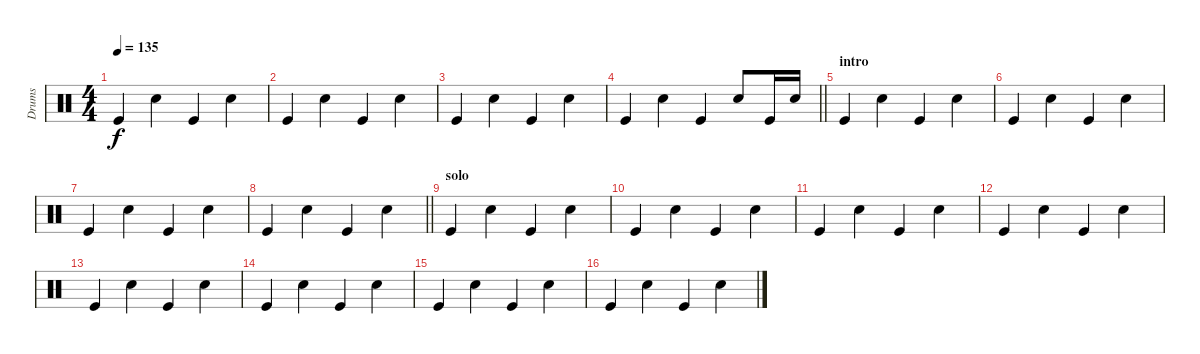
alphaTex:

\track ("Drums" "Drums") {instrument percussion}
\staff {score}
\articulation defaults
\ts (4 4)
\tempo 135
\clef neutral
\ks c "Kick (hit)".4{dy f} "Electric Snare (hit)".4 "Kick (hit)".4 "Electric Snare (hit)".4
|
"Kick (hit)".4 "Electric Snare (hit)".4 "Kick (hit)".4 "Electric Snare (hit)".4 |
"Kick (hit)".4 "Electric Snare (hit)".4 "Kick (hit)".4 "Electric Snare (hit)".4 |
\barLineRight lightlight "Kick (hit)".4 "Electric Snare (hit)".4 "Kick (hit)".4 "Electric Snare (hit)".8 "Kick (hit)".16 "Electric Snare (hit)".16
|
\section ("" "intro")
"Kick (hit)".4 "Electric Snare (hit)".4 "Kick (hit)".4 "Electric Snare (hit)".4 |
"Kick (hit)".4 "Electric Snare (hit)".4 "Kick (hit)".4 "Electric Snare (hit)".4 |
"Kick (hit)".4 "Electric Snare (hit)".4 "Kick (hit)".4 "Electric Snare (hit)".4 |
\barLineRight lightlight "Kick (hit)".4 "Electric Snare (hit)".4 "Kick (hit)".4 "Electric Snare (hit)".4
|
\section ("" "solo")
"Kick (hit)".4 "Electric Snare (hit)".4 "Kick (hit)".4 "Electric Snare (hit)".4 |
"Kick (hit)".4 "Electric Snare (hit)".4 "Kick (hit)".4 "Electric Snare (hit)".4 |
"Kick (hit)".4 "Electric Snare (hit)".4 "Kick (hit)".4 "Electric Snare (hit)".4 |
"Kick (hit)".4 "Electric Snare (hit)".4 "Kick (hit)".4 "Electric Snare (hit)".4 |
"Kick (hit)".4 "Electric Snare (hit)".4 "Kick (hit)".4 "Electric Snare (hit)".4 |
"Kick (hit)".4 "Electric Snare (hit)".4 "Kick (hit)".4 "Electric Snare (hit)".4 |
"Kick (hit)".4 "Electric Snare (hit)".4 "Kick (hit)".4 "Electric Snare (hit)".4 |
"Kick (hit)".4 "Electric Snare (hit)".4 "Kick (hit)".4 "Electric Snare (hit)".4
